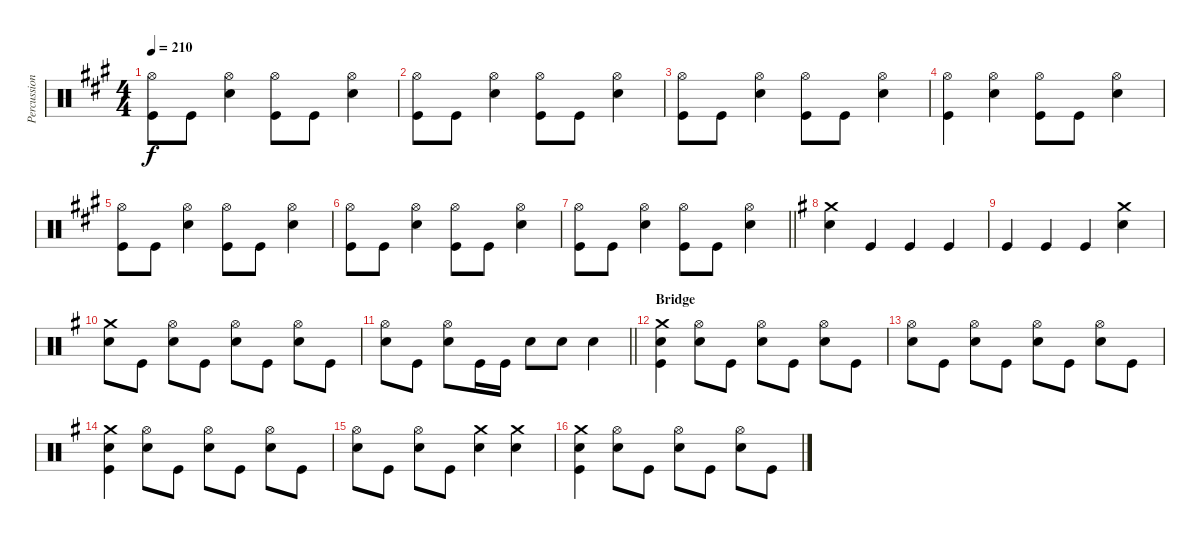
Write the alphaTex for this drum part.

\track ("Percussion" "Percussion") {instrument percussion}
\staff {score}
\articulation defaults
\ts (4 4)
\tempo 210
\clef neutral
\ks a
("Hi-Hat (open)" "Kick (hit)").8{dy f} "Kick (hit)".8 ("Hi-Hat (open)" "Snare (hit) 2").4 ("Hi-Hat (open)" "Kick (hit)").8 "Kick (hit)".8 ("Hi-Hat (open)" "Snare (hit) 2").4 |
("Hi-Hat (open)" "Kick (hit)").8 "Kick (hit)".8 ("Hi-Hat (open)" "Snare (hit) 2").4 ("Hi-Hat (open)" "Kick (hit)").8 "Kick (hit)".8 ("Hi-Hat (open)" "Snare (hit) 2").4 |
("Hi-Hat (open)" "Kick (hit)").8 "Kick (hit)".8 ("Hi-Hat (open)" "Snare (hit) 2").4 ("Hi-Hat (open)" "Kick (hit)").8 "Kick (hit)".8 ("Hi-Hat (open)" "Snare (hit) 2").4 |
("Hi-Hat (open)" "Kick (hit)").4 ("Hi-Hat (open)" "Snare (hit) 2").4 ("Hi-Hat (open)" "Kick (hit)").8 "Kick (hit)".8 ("Hi-Hat (open)" "Snare (hit) 2").4 |
("Hi-Hat (open)" "Kick (hit)").8 "Kick (hit)".8 ("Hi-Hat (open)" "Snare (hit) 2").4 ("Hi-Hat (open)" "Kick (hit)").8 "Kick (hit)".8 ("Hi-Hat (open)" "Snare (hit) 2").4 |
("Hi-Hat (open)" "Kick (hit)").8 "Kick (hit)".8 ("Hi-Hat (open)" "Snare (hit) 2").4 ("Hi-Hat (open)" "Kick (hit)").8 "Kick (hit)".8 ("Hi-Hat (open)" "Snare (hit) 2").4 |
\barLineRight lightlight
("Hi-Hat (open)" "Kick (hit)").8 "Kick (hit)".8 ("Hi-Hat (open)" "Snare (hit) 2").4 ("Hi-Hat (open)" "Kick (hit)").8 "Kick (hit)".8 ("Hi-Hat (open)" "Snare (hit) 2").4 |
\ks g
("Crash medium (hit)" "Snare (hit) 2").4 "Kick (hit)".4 "Kick (hit)".4 "Kick (hit)".4 |
"Kick (hit)".4 "Kick (hit)".4 "Kick (hit)".4 ("Crash medium (hit)" "Snare (hit) 2").4 |
("Crash medium (hit)" "Snare (hit) 2").8 "Kick (hit)".8 ("Hi-Hat (open)" "Snare (hit) 2").8 "Kick (hit)".8 ("Hi-Hat (open)" "Snare (hit) 2").8 "Kick (hit)".8 ("Hi-Hat (open)" "Snare (hit) 2").8 "Kick (hit)".8 |
\barLineRight lightlight
("Hi-Hat (open)" "Snare (hit) 2").8 "Kick (hit)".8 ("Hi-Hat (open)" "Snare (hit) 2").8 "Kick (hit)".16 "Kick (hit)".16 "Snare (hit) 2".8 "Snare (hit) 2".8 "Snare (hit) 2".4 |
\section ("" "Bridge")
("Crash medium (hit)" "Snare (hit) 2" "Kick (hit)").4 ("Hi-Hat (open)" "Snare (hit) 2").8 "Kick (hit)".8 ("Hi-Hat (open)" "Snare (hit) 2").8 "Kick (hit)".8 ("Hi-Hat (open)" "Snare (hit) 2").8 "Kick (hit)".8 |
("Hi-Hat (open)" "Snare (hit) 2").8 "Kick (hit)".8 ("Hi-Hat (open)" "Snare (hit) 2").8 "Kick (hit)".8 ("Hi-Hat (open)" "Snare (hit) 2").8 "Kick (hit)".8 ("Hi-Hat (open)" "Snare (hit) 2").8 "Kick (hit)".8 |
("Crash medium (hit)" "Snare (hit) 2" "Kick (hit)").4 ("Hi-Hat (open)" "Snare (hit) 2").8 "Kick (hit)".8 ("Hi-Hat (open)" "Snare (hit) 2").8 "Kick (hit)".8 ("Hi-Hat (open)" "Snare (hit) 2").8 "Kick (hit)".8 |
("Hi-Hat (open)" "Snare (hit) 2").8 "Kick (hit)".8 ("Hi-Hat (open)" "Snare (hit) 2").8 "Kick (hit)".8 ("Crash medium (hit)" "Snare (hit) 2").4 ("Crash medium (hit)" "Snare (hit) 2").4 |
("Crash medium (hit)" "Snare (hit) 2" "Kick (hit)").4 ("Hi-Hat (open)" "Snare (hit) 2").8 "Kick (hit)".8 ("Hi-Hat (open)" "Snare (hit) 2").8 "Kick (hit)".8 ("Hi-Hat (open)" "Snare (hit) 2").8 "Kick (hit)".8
